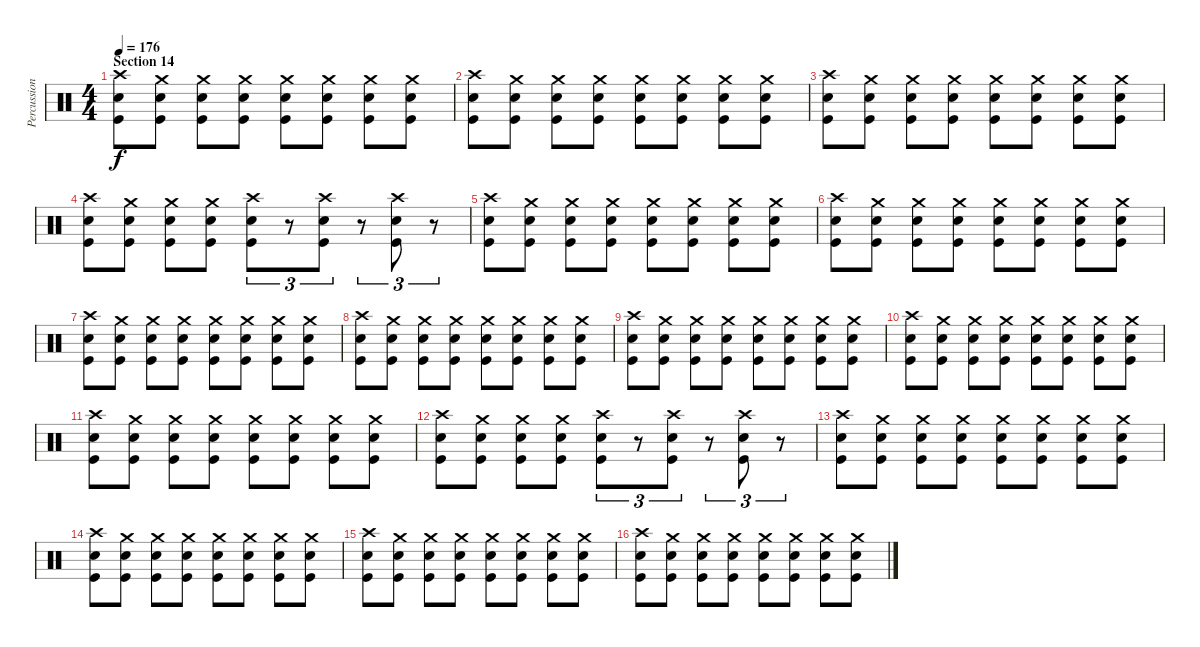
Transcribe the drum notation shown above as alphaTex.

\track ("Percussions" "Percussion") {instrument percussion}
\staff {score}
\articulation defaults
\ts (4 4)
\section ("" "Section 14")
\tempo 176
\clef neutral
\ks c
("Crash high (hit)" "Electric Snare (hit)" "Kick (hit)").8{dy f} ("Crash medium (hit)" "Electric Snare (hit)" "Kick (hit)").8 ("Crash medium (hit)" "Electric Snare (hit)" "Kick (hit)").8 ("Crash medium (hit)" "Electric Snare (hit)" "Kick (hit)").8 ("Crash medium (hit)" "Electric Snare (hit)" "Kick (hit)").8 ("Crash medium (hit)" "Electric Snare (hit)" "Kick (hit)").8 ("Crash medium (hit)" "Electric Snare (hit)" "Kick (hit)").8 ("Crash medium (hit)" "Electric Snare (hit)" "Kick (hit)").8 |
("Crash high (hit)" "Electric Snare (hit)" "Kick (hit)").8 ("Crash medium (hit)" "Electric Snare (hit)" "Kick (hit)").8 ("Crash medium (hit)" "Electric Snare (hit)" "Kick (hit)").8 ("Crash medium (hit)" "Electric Snare (hit)" "Kick (hit)").8 ("Crash medium (hit)" "Electric Snare (hit)" "Kick (hit)").8 ("Crash medium (hit)" "Electric Snare (hit)" "Kick (hit)").8 ("Crash medium (hit)" "Electric Snare (hit)" "Kick (hit)").8 ("Crash medium (hit)" "Electric Snare (hit)" "Kick (hit)").8 |
("Crash high (hit)" "Electric Snare (hit)" "Kick (hit)").8 ("Crash medium (hit)" "Electric Snare (hit)" "Kick (hit)").8 ("Crash medium (hit)" "Electric Snare (hit)" "Kick (hit)").8 ("Crash medium (hit)" "Electric Snare (hit)" "Kick (hit)").8 ("Crash medium (hit)" "Electric Snare (hit)" "Kick (hit)").8 ("Crash medium (hit)" "Electric Snare (hit)" "Kick (hit)").8 ("Crash medium (hit)" "Electric Snare (hit)" "Kick (hit)").8 ("Crash medium (hit)" "Electric Snare (hit)" "Kick (hit)").8 |
("Crash high (hit)" "Electric Snare (hit)" "Kick (hit)").8 ("Crash medium (hit)" "Electric Snare (hit)" "Kick (hit)").8 ("Crash medium (hit)" "Electric Snare (hit)" "Kick (hit)").8 ("Crash medium (hit)" "Electric Snare (hit)" "Kick (hit)").8 ("Crash high (hit)" "Electric Snare (hit)" "Kick (hit)").8{tu (3 2) volume 16} r.8{tu (3 2) volume 0} ("Crash high (hit)" "Electric Snare (hit)" "Kick (hit)").8{tu (3 2) volume 16} r.8{tu (3 2) volume 0} ("Crash high (hit)" "Electric Snare (hit)" "Kick (hit)").8{tu (3 2) volume 16} r.8{tu (3 2) volume 1} |
("Crash high (hit)" "Electric Snare (hit)" "Kick (hit)").8{volume 16} ("Crash medium (hit)" "Electric Snare (hit)" "Kick (hit)").8 ("Crash medium (hit)" "Electric Snare (hit)" "Kick (hit)").8 ("Crash medium (hit)" "Electric Snare (hit)" "Kick (hit)").8 ("Crash medium (hit)" "Electric Snare (hit)" "Kick (hit)").8 ("Crash medium (hit)" "Electric Snare (hit)" "Kick (hit)").8 ("Crash medium (hit)" "Electric Snare (hit)" "Kick (hit)").8 ("Crash medium (hit)" "Electric Snare (hit)" "Kick (hit)").8 |
("Crash high (hit)" "Electric Snare (hit)" "Kick (hit)").8 ("Crash medium (hit)" "Electric Snare (hit)" "Kick (hit)").8 ("Crash medium (hit)" "Electric Snare (hit)" "Kick (hit)").8 ("Crash medium (hit)" "Electric Snare (hit)" "Kick (hit)").8 ("Crash medium (hit)" "Electric Snare (hit)" "Kick (hit)").8 ("Crash medium (hit)" "Electric Snare (hit)" "Kick (hit)").8 ("Crash medium (hit)" "Electric Snare (hit)" "Kick (hit)").8 ("Crash medium (hit)" "Electric Snare (hit)" "Kick (hit)").8 |
("Crash high (hit)" "Electric Snare (hit)" "Kick (hit)").8 ("Crash medium (hit)" "Electric Snare (hit)" "Kick (hit)").8 ("Crash medium (hit)" "Electric Snare (hit)" "Kick (hit)").8 ("Crash medium (hit)" "Electric Snare (hit)" "Kick (hit)").8 ("Crash medium (hit)" "Electric Snare (hit)" "Kick (hit)").8 ("Crash medium (hit)" "Electric Snare (hit)" "Kick (hit)").8 ("Crash medium (hit)" "Electric Snare (hit)" "Kick (hit)").8 ("Crash medium (hit)" "Electric Snare (hit)" "Kick (hit)").8 |
("Crash high (hit)" "Electric Snare (hit)" "Kick (hit)").8 ("Crash medium (hit)" "Electric Snare (hit)" "Kick (hit)").8 ("Crash medium (hit)" "Electric Snare (hit)" "Kick (hit)").8 ("Crash medium (hit)" "Electric Snare (hit)" "Kick (hit)").8 ("Crash medium (hit)" "Electric Snare (hit)" "Kick (hit)").8 ("Crash medium (hit)" "Electric Snare (hit)" "Kick (hit)").8 ("Crash medium (hit)" "Electric Snare (hit)" "Kick (hit)").8 ("Crash medium (hit)" "Electric Snare (hit)" "Kick (hit)").8 |
("Crash high (hit)" "Electric Snare (hit)" "Kick (hit)").8 ("Crash medium (hit)" "Electric Snare (hit)" "Kick (hit)").8 ("Crash medium (hit)" "Electric Snare (hit)" "Kick (hit)").8 ("Crash medium (hit)" "Electric Snare (hit)" "Kick (hit)").8 ("Crash medium (hit)" "Electric Snare (hit)" "Kick (hit)").8 ("Crash medium (hit)" "Electric Snare (hit)" "Kick (hit)").8 ("Crash medium (hit)" "Electric Snare (hit)" "Kick (hit)").8 ("Crash medium (hit)" "Electric Snare (hit)" "Kick (hit)").8 |
("Crash high (hit)" "Electric Snare (hit)" "Kick (hit)").8 ("Crash medium (hit)" "Electric Snare (hit)" "Kick (hit)").8 ("Crash medium (hit)" "Electric Snare (hit)" "Kick (hit)").8 ("Crash medium (hit)" "Electric Snare (hit)" "Kick (hit)").8 ("Crash medium (hit)" "Electric Snare (hit)" "Kick (hit)").8 ("Crash medium (hit)" "Electric Snare (hit)" "Kick (hit)").8 ("Crash medium (hit)" "Electric Snare (hit)" "Kick (hit)").8 ("Crash medium (hit)" "Electric Snare (hit)" "Kick (hit)").8 |
("Crash high (hit)" "Electric Snare (hit)" "Kick (hit)").8 ("Crash medium (hit)" "Electric Snare (hit)" "Kick (hit)").8 ("Crash medium (hit)" "Electric Snare (hit)" "Kick (hit)").8 ("Crash medium (hit)" "Electric Snare (hit)" "Kick (hit)").8 ("Crash medium (hit)" "Electric Snare (hit)" "Kick (hit)").8 ("Crash medium (hit)" "Electric Snare (hit)" "Kick (hit)").8 ("Crash medium (hit)" "Electric Snare (hit)" "Kick (hit)").8 ("Crash medium (hit)" "Electric Snare (hit)" "Kick (hit)").8 |
("Crash high (hit)" "Electric Snare (hit)" "Kick (hit)").8 ("Crash medium (hit)" "Electric Snare (hit)" "Kick (hit)").8 ("Crash medium (hit)" "Electric Snare (hit)" "Kick (hit)").8 ("Crash medium (hit)" "Electric Snare (hit)" "Kick (hit)").8 ("Crash high (hit)" "Electric Snare (hit)" "Kick (hit)").8{tu (3 2)} r.8{tu (3 2)} ("Crash high (hit)" "Electric Snare (hit)" "Kick (hit)").8{tu (3 2)} r.8{tu (3 2)} ("Crash high (hit)" "Electric Snare (hit)" "Kick (hit)").8{tu (3 2)} r.8{tu (3 2)} |
("Crash high (hit)" "Electric Snare (hit)" "Kick (hit)").8 ("Crash medium (hit)" "Electric Snare (hit)" "Kick (hit)").8 ("Crash medium (hit)" "Electric Snare (hit)" "Kick (hit)").8 ("Crash medium (hit)" "Electric Snare (hit)" "Kick (hit)").8 ("Crash medium (hit)" "Electric Snare (hit)" "Kick (hit)").8 ("Crash medium (hit)" "Electric Snare (hit)" "Kick (hit)").8 ("Crash medium (hit)" "Electric Snare (hit)" "Kick (hit)").8 ("Crash medium (hit)" "Electric Snare (hit)" "Kick (hit)").8 |
("Crash high (hit)" "Electric Snare (hit)" "Kick (hit)").8 ("Crash medium (hit)" "Electric Snare (hit)" "Kick (hit)").8 ("Crash medium (hit)" "Electric Snare (hit)" "Kick (hit)").8 ("Crash medium (hit)" "Electric Snare (hit)" "Kick (hit)").8 ("Crash medium (hit)" "Electric Snare (hit)" "Kick (hit)").8 ("Crash medium (hit)" "Electric Snare (hit)" "Kick (hit)").8 ("Crash medium (hit)" "Electric Snare (hit)" "Kick (hit)").8 ("Crash medium (hit)" "Electric Snare (hit)" "Kick (hit)").8 |
("Crash high (hit)" "Electric Snare (hit)" "Kick (hit)").8 ("Crash medium (hit)" "Electric Snare (hit)" "Kick (hit)").8 ("Crash medium (hit)" "Electric Snare (hit)" "Kick (hit)").8 ("Crash medium (hit)" "Electric Snare (hit)" "Kick (hit)").8 ("Crash medium (hit)" "Electric Snare (hit)" "Kick (hit)").8 ("Crash medium (hit)" "Electric Snare (hit)" "Kick (hit)").8 ("Crash medium (hit)" "Electric Snare (hit)" "Kick (hit)").8 ("Crash medium (hit)" "Electric Snare (hit)" "Kick (hit)").8 |
("Crash high (hit)" "Electric Snare (hit)" "Kick (hit)").8 ("Crash medium (hit)" "Electric Snare (hit)" "Kick (hit)").8 ("Crash medium (hit)" "Electric Snare (hit)" "Kick (hit)").8 ("Crash medium (hit)" "Electric Snare (hit)" "Kick (hit)").8 ("Crash medium (hit)" "Electric Snare (hit)" "Kick (hit)").8 ("Crash medium (hit)" "Electric Snare (hit)" "Kick (hit)").8 ("Crash medium (hit)" "Electric Snare (hit)" "Kick (hit)").8 ("Crash medium (hit)" "Electric Snare (hit)" "Kick (hit)").8
